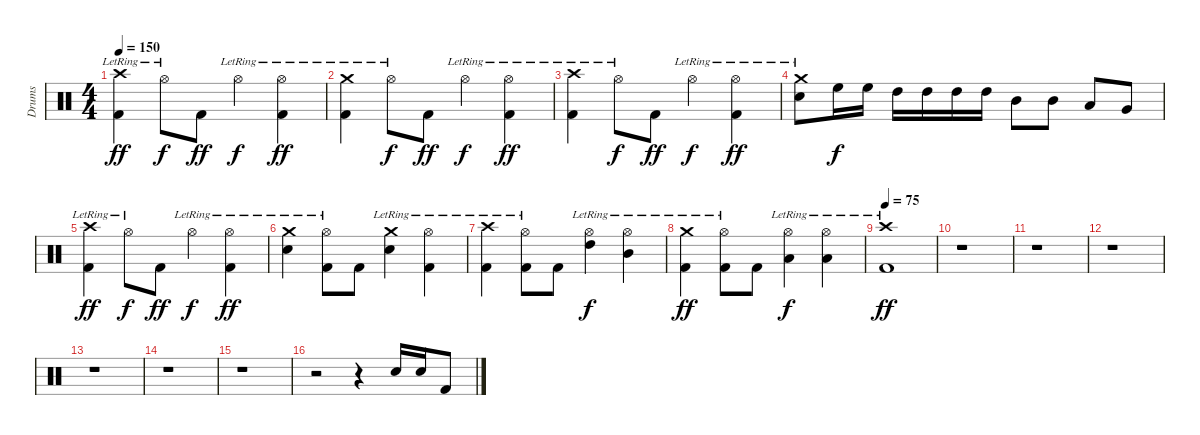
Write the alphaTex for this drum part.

\track ("Drums" "Drums") {instrument percussion}
\staff {score}
\articulation defaults
\ts (4 4)
\tempo 150
\clef neutral
\ks c
("Crash high (hit)"{lr} "Kick (hit) 2").4{dy ff} "Hi-Hat (open)"{lr}.8{dy f} "Kick (hit) 2".8{dy ff} "Hi-Hat (open)"{lr}.4{dy f} ("Hi-Hat (open)"{lr} "Kick (hit) 2").4{dy ff} |
("Crash medium (hit)"{lr} "Kick (hit) 2").4 "Hi-Hat (open)"{lr}.8{dy f} "Kick (hit) 2".8{dy ff} "Hi-Hat (open)"{lr}.4{dy f} ("Hi-Hat (open)"{lr} "Kick (hit) 2").4{dy ff} |
("Crash high (hit)"{lr} "Kick (hit) 2").4 "Hi-Hat (open)"{lr}.8{dy f} "Kick (hit) 2".8{dy ff} "Hi-Hat (open)"{lr}.4{dy f} ("Hi-Hat (open)"{lr} "Kick (hit) 2").4{dy ff} |
("Crash medium (hit)"{lr} "Snare (hit) 2").8 "High Floor Tom (hit)".16{dy f} "High Floor Tom (hit)".16 "High Tom (hit)".16 "High Tom (hit)".16 "High Tom (hit)".16 "High Tom (hit)".16 "Mid Tom (hit)".8 "Mid Tom (hit)".8 "Low Tom (hit)".8 "Very Low Tom (hit)".8 |
("Crash high (hit)"{lr} "Kick (hit) 2").4{dy ff} "Hi-Hat (open)"{lr}.8{dy f} "Kick (hit) 2".8{dy ff} "Hi-Hat (open)"{lr}.4{dy f} ("Hi-Hat (open)"{lr} "Kick (hit) 2").4{dy ff} |
("Crash medium (hit)"{lr} "Snare (hit) 2").4 ("Hi-Hat (open)"{lr} "Kick (hit) 2").8 "Kick (hit) 2".8 ("Crash medium (hit)"{lr} "Snare (hit) 2").4 ("Hi-Hat (open)"{lr} "Kick (hit) 2").4 |
("Crash high (hit)"{lr} "Kick (hit) 2").4 ("Hi-Hat (open)"{lr} "Kick (hit) 2").8 "Kick (hit) 2".8 ("Hi-Hat (open)"{lr} "High Tom (hit)").4{dy f} ("Hi-Hat (open)"{lr} "Mid Tom (hit)").4 |
("Crash medium (hit)"{lr} "Kick (hit) 2").4{dy ff} ("Hi-Hat (open)"{lr} "Kick (hit) 2").8 "Kick (hit) 2".8 ("Hi-Hat (open)"{lr} "Low Tom (hit)").4{dy f} ("Hi-Hat (open)"{lr} "Low Floor Tom (hit)").4 |
\tempo 75
("Crash high (hit)"{lr} "Kick (hit) 2").1{dy ff} |
r.1 |
r.1 |
r.1 |
r.1 |
r.1 |
r.1 |
r.2 r.4 "Snare (hit) 2".16 "Snare (hit) 2".16 "Kick (hit) 2".8
